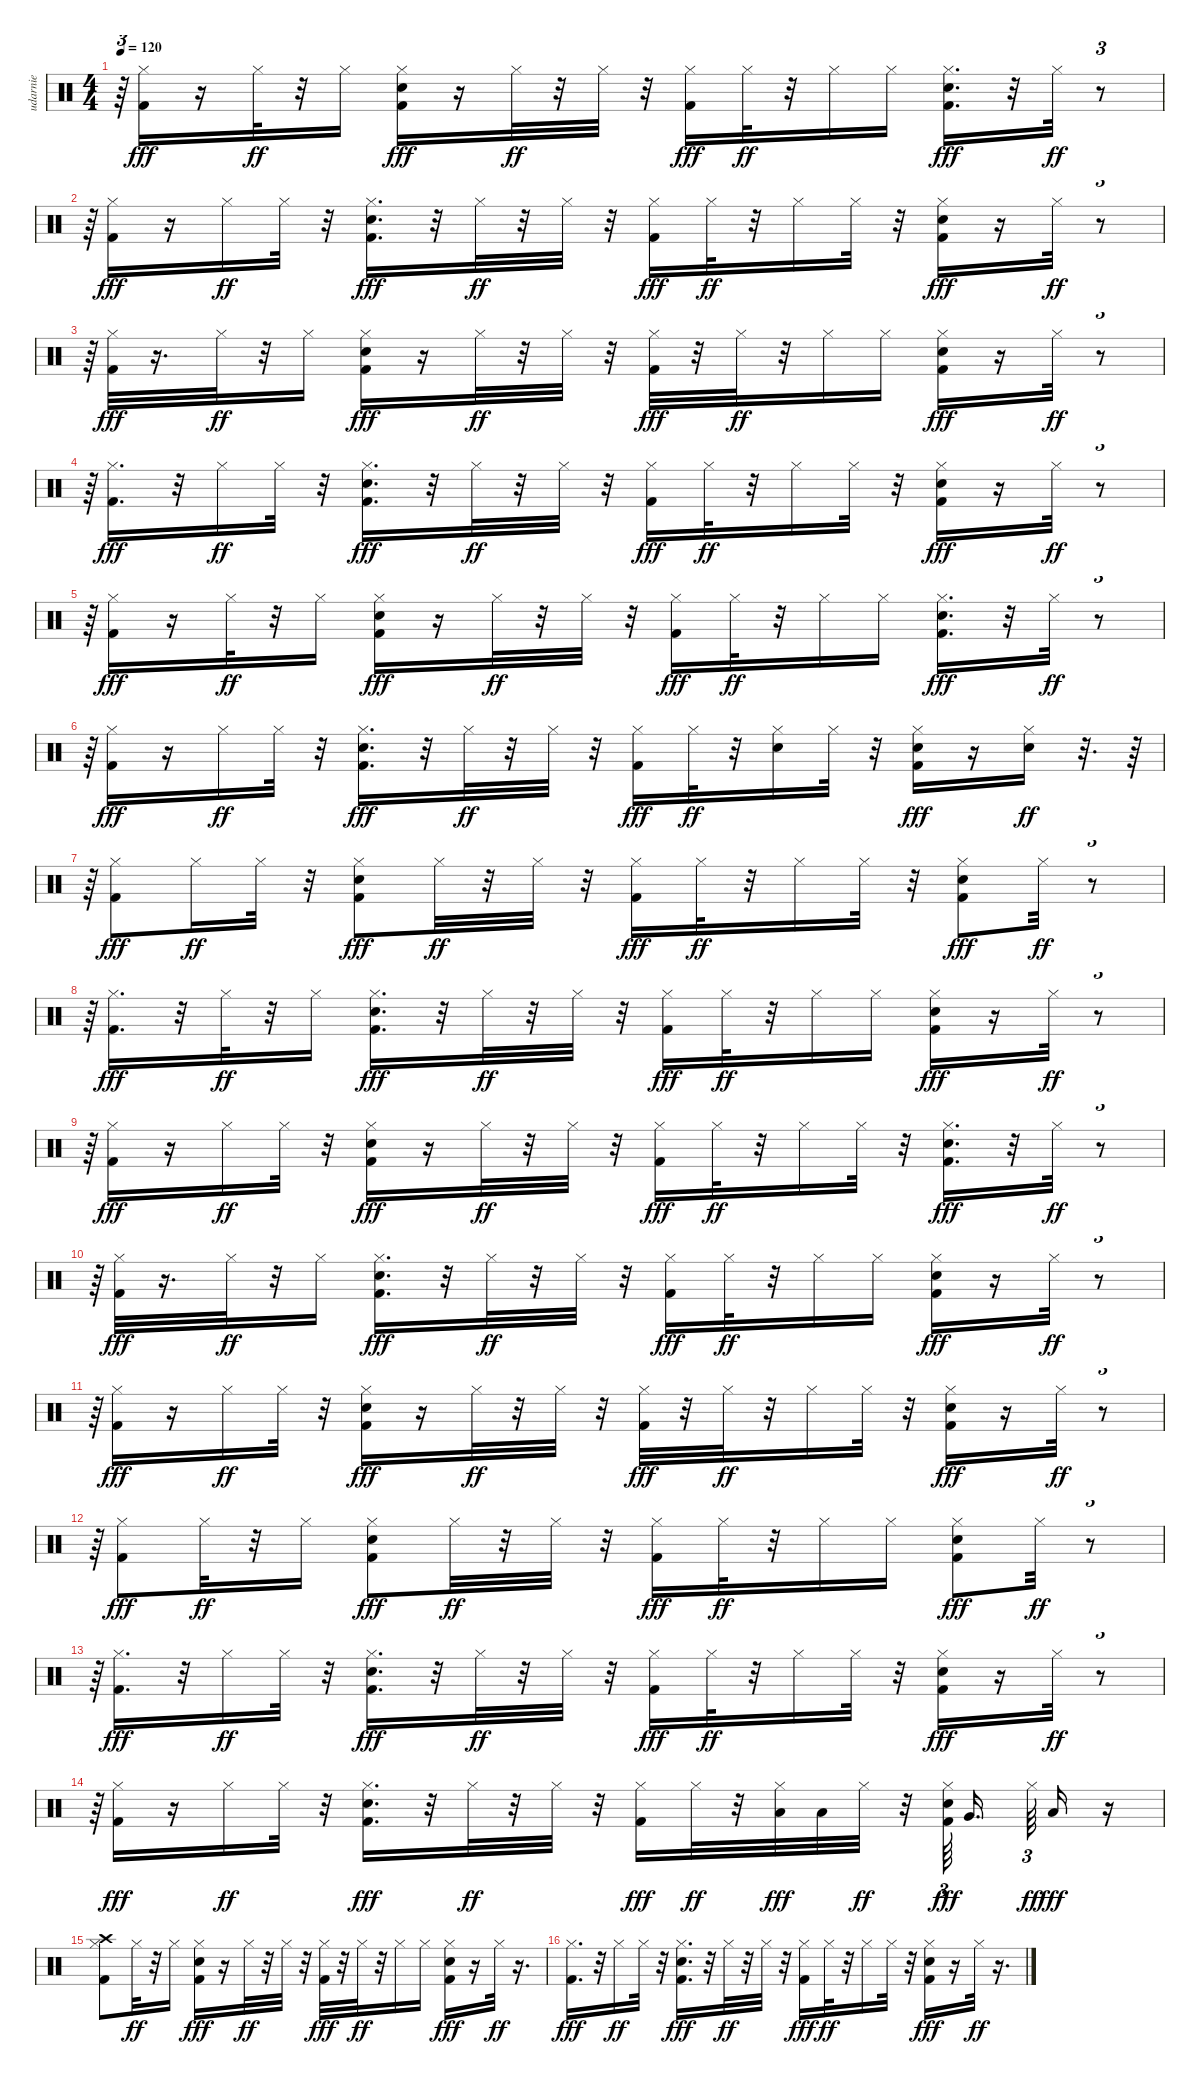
\track ("udarnie" "udarnie") {instrument percussion}
\staff {score}
\articulation defaults
\ts (4 4)
\tempo 120
\clef neutral
\ks c
r.64{tu (3 2) dy ff} ("Hi-Hat (closed)" "Kick (hit) 2").16{dy fff} r.16 "Hi-Hat (closed)".32{dy ff} r.32 "Hi-Hat (closed)".16 ("Hi-Hat (closed)" "Electric Snare (hit)" "Kick (hit) 2").16{dy fff} r.16 "Hi-Hat (closed)".32{dy ff} r.32 "Hi-Hat (closed)".32 r.32 ("Hi-Hat (closed)" "Kick (hit) 2").16{dy fff} "Hi-Hat (closed)".32{dy ff} r.32 "Hi-Hat (closed)".16 "Hi-Hat (closed)".16 ("Hi-Hat (closed)" "Electric Snare (hit)" "Kick (hit) 2").16{d dy fff} r.32 "Hi-Hat (closed)".32{dy ff} r.8{tu (3 2)} |
r.64{tu (3 2)} ("Hi-Hat (closed)" "Kick (hit) 2").16{dy fff} r.16 "Hi-Hat (closed)".16{dy ff} "Hi-Hat (closed)".32 r.32 ("Hi-Hat (closed)" "Electric Snare (hit)" "Kick (hit) 2").16{d dy fff} r.32 "Hi-Hat (closed)".32{dy ff} r.32 "Hi-Hat (closed)".32 r.32 ("Hi-Hat (closed)" "Kick (hit) 2").16{dy fff} "Hi-Hat (closed)".32{dy ff} r.32 "Hi-Hat (closed)".16 "Hi-Hat (closed)".32 r.32 ("Hi-Hat (closed)" "Electric Snare (hit)" "Kick (hit) 2").16{dy fff} r.16 "Hi-Hat (closed)".32{dy ff} r.8{tu (3 2)} |
r.64{tu (3 2)} ("Hi-Hat (closed)" "Kick (hit) 2").32{dy fff} r.16{d} "Hi-Hat (closed)".32{dy ff} r.32 "Hi-Hat (closed)".16 ("Hi-Hat (closed)" "Electric Snare (hit)" "Kick (hit) 2").16{dy fff} r.16 "Hi-Hat (closed)".32{dy ff} r.32 "Hi-Hat (closed)".32 r.32 ("Hi-Hat (closed)" "Kick (hit) 2").32{dy fff} r.32 "Hi-Hat (closed)".32{dy ff} r.32 "Hi-Hat (closed)".16 "Hi-Hat (closed)".16 ("Hi-Hat (closed)" "Electric Snare (hit)" "Kick (hit) 2").16{dy fff} r.16 "Hi-Hat (closed)".32{dy ff} r.8{tu (3 2)} |
r.64{tu (3 2)} ("Hi-Hat (closed)" "Kick (hit) 2").16{d dy fff} r.32 "Hi-Hat (closed)".16{dy ff} "Hi-Hat (closed)".32 r.32 ("Hi-Hat (closed)" "Electric Snare (hit)" "Kick (hit) 2").16{d dy fff} r.32 "Hi-Hat (closed)".32{dy ff} r.32 "Hi-Hat (closed)".32 r.32 ("Hi-Hat (closed)" "Kick (hit) 2").16{dy fff} "Hi-Hat (closed)".32{dy ff} r.32 "Hi-Hat (closed)".16 "Hi-Hat (closed)".32 r.32 ("Hi-Hat (closed)" "Electric Snare (hit)" "Kick (hit) 2").16{dy fff} r.16 "Hi-Hat (closed)".32{dy ff} r.8{tu (3 2)} |
r.64{tu (3 2)} ("Hi-Hat (closed)" "Kick (hit) 2").16{dy fff} r.16 "Hi-Hat (closed)".32{dy ff} r.32 "Hi-Hat (closed)".16 ("Hi-Hat (closed)" "Electric Snare (hit)" "Kick (hit) 2").16{dy fff} r.16 "Hi-Hat (closed)".32{dy ff} r.32 "Hi-Hat (closed)".32 r.32 ("Hi-Hat (closed)" "Kick (hit) 2").16{dy fff} "Hi-Hat (closed)".32{dy ff} r.32 "Hi-Hat (closed)".16 "Hi-Hat (closed)".16 ("Hi-Hat (closed)" "Electric Snare (hit)" "Kick (hit) 2").16{d dy fff} r.32 "Hi-Hat (closed)".32{dy ff} r.8{tu (3 2)} |
r.64{tu (3 2)} ("Hi-Hat (closed)" "Kick (hit) 2").16{dy fff} r.16 "Hi-Hat (closed)".16{dy ff} "Hi-Hat (closed)".32 r.32 ("Hi-Hat (closed)" "Electric Snare (hit)" "Kick (hit) 2").16{d dy fff} r.32 "Hi-Hat (closed)".32{dy ff} r.32 "Hi-Hat (closed)".32 r.32 ("Hi-Hat (closed)" "Kick (hit) 2").16{dy fff} "Hi-Hat (closed)".32{dy ff} r.32 ("Hi-Hat (closed)" "Electric Snare (hit)").16 "Hi-Hat (closed)".32 r.32 ("Hi-Hat (closed)" "Electric Snare (hit)" "Kick (hit) 2").16{dy fff} r.16 ("Hi-Hat (closed)" "Electric Snare (hit)").16{dy ff} r.32{d} r.64 |
r.64{tu (3 2)} ("Hi-Hat (closed)" "Kick (hit) 2").8{dy fff} "Hi-Hat (closed)".16{dy ff} "Hi-Hat (closed)".32 r.32 ("Hi-Hat (closed)" "Electric Snare (hit)" "Kick (hit) 2").8{dy fff} "Hi-Hat (closed)".32{dy ff} r.32 "Hi-Hat (closed)".32 r.32 ("Hi-Hat (closed)" "Kick (hit) 2").16{dy fff} "Hi-Hat (closed)".32{dy ff} r.32 "Hi-Hat (closed)".16 "Hi-Hat (closed)".32 r.32 ("Hi-Hat (closed)" "Electric Snare (hit)" "Kick (hit) 2").8{dy fff} "Hi-Hat (closed)".32{dy ff} r.8{tu (3 2)} |
r.64{tu (3 2)} ("Hi-Hat (closed)" "Kick (hit) 2").16{d dy fff} r.32 "Hi-Hat (closed)".32{dy ff} r.32 "Hi-Hat (closed)".16 ("Hi-Hat (closed)" "Electric Snare (hit)" "Kick (hit) 2").16{d dy fff} r.32 "Hi-Hat (closed)".32{dy ff} r.32 "Hi-Hat (closed)".32 r.32 ("Hi-Hat (closed)" "Kick (hit) 2").16{dy fff} "Hi-Hat (closed)".32{dy ff} r.32 "Hi-Hat (closed)".16 "Hi-Hat (closed)".16 ("Hi-Hat (closed)" "Electric Snare (hit)" "Kick (hit) 2").16{dy fff} r.16 "Hi-Hat (closed)".32{dy ff} r.8{tu (3 2)} |
r.64{tu (3 2)} ("Hi-Hat (closed)" "Kick (hit) 2").16{dy fff} r.16 "Hi-Hat (closed)".16{dy ff} "Hi-Hat (closed)".32 r.32 ("Hi-Hat (closed)" "Electric Snare (hit)" "Kick (hit) 2").16{dy fff} r.16 "Hi-Hat (closed)".32{dy ff} r.32 "Hi-Hat (closed)".32 r.32 ("Hi-Hat (closed)" "Kick (hit) 2").16{dy fff} "Hi-Hat (closed)".32{dy ff} r.32 "Hi-Hat (closed)".16 "Hi-Hat (closed)".32 r.32 ("Hi-Hat (closed)" "Electric Snare (hit)" "Kick (hit) 2").16{d dy fff} r.32 "Hi-Hat (closed)".32{dy ff} r.8{tu (3 2)} |
r.64{tu (3 2)} ("Hi-Hat (closed)" "Kick (hit) 2").32{dy fff} r.16{d} "Hi-Hat (closed)".32{dy ff} r.32 "Hi-Hat (closed)".16 ("Hi-Hat (closed)" "Electric Snare (hit)" "Kick (hit) 2").16{d dy fff} r.32 "Hi-Hat (closed)".32{dy ff} r.32 "Hi-Hat (closed)".32 r.32 ("Hi-Hat (closed)" "Kick (hit) 2").16{dy fff} "Hi-Hat (closed)".32{dy ff} r.32 "Hi-Hat (closed)".16 "Hi-Hat (closed)".16 ("Hi-Hat (closed)" "Electric Snare (hit)" "Kick (hit) 2").16{dy fff} r.16 "Hi-Hat (closed)".32{dy ff} r.8{tu (3 2)} |
r.64{tu (3 2)} ("Hi-Hat (closed)" "Kick (hit) 2").16{dy fff} r.16 "Hi-Hat (closed)".16{dy ff} "Hi-Hat (closed)".32 r.32 ("Hi-Hat (closed)" "Electric Snare (hit)" "Kick (hit) 2").16{dy fff} r.16 "Hi-Hat (closed)".32{dy ff} r.32 "Hi-Hat (closed)".32 r.32 ("Hi-Hat (closed)" "Kick (hit) 2").32{dy fff} r.32 "Hi-Hat (closed)".32{dy ff} r.32 "Hi-Hat (closed)".16 "Hi-Hat (closed)".32 r.32 ("Hi-Hat (closed)" "Electric Snare (hit)" "Kick (hit) 2").16{dy fff} r.16 "Hi-Hat (closed)".32{dy ff} r.8{tu (3 2)} |
r.64{tu (3 2)} ("Hi-Hat (closed)" "Kick (hit) 2").8{dy fff} "Hi-Hat (closed)".32{dy ff} r.32 "Hi-Hat (closed)".16 ("Hi-Hat (closed)" "Electric Snare (hit)" "Kick (hit) 2").8{dy fff} "Hi-Hat (closed)".32{dy ff} r.32 "Hi-Hat (closed)".32 r.32 ("Hi-Hat (closed)" "Kick (hit) 2").16{dy fff} "Hi-Hat (closed)".32{dy ff} r.32 "Hi-Hat (closed)".16 "Hi-Hat (closed)".16 ("Hi-Hat (closed)" "Electric Snare (hit)" "Kick (hit) 2").8{dy fff} "Hi-Hat (closed)".32{dy ff} r.8{tu (3 2)} |
r.64{tu (3 2)} ("Hi-Hat (closed)" "Kick (hit) 2").16{d dy fff} r.32 "Hi-Hat (closed)".16{dy ff} "Hi-Hat (closed)".32 r.32 ("Hi-Hat (closed)" "Electric Snare (hit)" "Kick (hit) 2").16{d dy fff} r.32 "Hi-Hat (closed)".32{dy ff} r.32 "Hi-Hat (closed)".32 r.32 ("Hi-Hat (closed)" "Kick (hit) 2").16{dy fff} "Hi-Hat (closed)".32{dy ff} r.32 "Hi-Hat (closed)".16 "Hi-Hat (closed)".32 r.32 ("Hi-Hat (closed)" "Electric Snare (hit)" "Kick (hit) 2").16{dy fff} r.16 "Hi-Hat (closed)".32{dy ff} r.8{tu (3 2)} |
r.64{tu (3 2)} ("Hi-Hat (closed)" "Kick (hit) 2").16{dy fff} r.16 "Hi-Hat (closed)".16{dy ff} "Hi-Hat (closed)".32 r.32 ("Hi-Hat (closed)" "Electric Snare (hit)" "Kick (hit) 2").16{d dy fff} r.32 "Hi-Hat (closed)".32{dy ff} r.32 "Hi-Hat (closed)".32 r.32 ("Hi-Hat (closed)" "Kick (hit) 2").16{dy fff} "Hi-Hat (closed)".32{dy ff} r.32 ("Hi-Hat (closed)" "Low Tom (hit)").32{dy fff} "Low Tom (hit)".32 "Hi-Hat (closed)".32{dy ff} r.32 ("Hi-Hat (closed)" "Electric Snare (hit)" "Kick (hit) 2").64{tu (3 2) dy fff beam splitsecondary} "Very Low Tom (hit)".16{d beam splitsecondary} "Hi-Hat (closed)".64{tu (3 2) dy ff} "Low Floor Tom (hit)".16{dy fff} r.16 |
("Crash high (hit)" "Hi-Hat (closed)" "Kick (hit) 2").8 "Hi-Hat (closed)".32{dy ff} r.32 "Hi-Hat (closed)".16 ("Hi-Hat (closed)" "Electric Snare (hit)" "Kick (hit) 2").16{dy fff} r.16 "Hi-Hat (closed)".32{dy ff} r.32 "Hi-Hat (closed)".32 r.32 ("Hi-Hat (closed)" "Kick (hit) 2").32{dy fff} r.32 "Hi-Hat (closed)".32{dy ff} r.32 "Hi-Hat (closed)".16 "Hi-Hat (closed)".16 ("Hi-Hat (closed)" "Electric Snare (hit)" "Kick (hit) 2").16{dy fff} r.16 "Hi-Hat (closed)".32{dy ff} r.16{d} |
("Hi-Hat (closed)" "Kick (hit) 2").16{d dy fff} r.32 "Hi-Hat (closed)".16{dy ff} "Hi-Hat (closed)".32 r.32 ("Hi-Hat (closed)" "Electric Snare (hit)" "Kick (hit) 2").16{d dy fff} r.32 "Hi-Hat (closed)".32{dy ff} r.32 "Hi-Hat (closed)".32 r.32 ("Hi-Hat (closed)" "Kick (hit) 2").16{dy fff} "Hi-Hat (closed)".32{dy ff} r.32 "Hi-Hat (closed)".16 "Hi-Hat (closed)".32 r.32 ("Hi-Hat (closed)" "Electric Snare (hit)" "Kick (hit) 2").16{dy fff} r.16 "Hi-Hat (closed)".32{dy ff} r.16{d}
